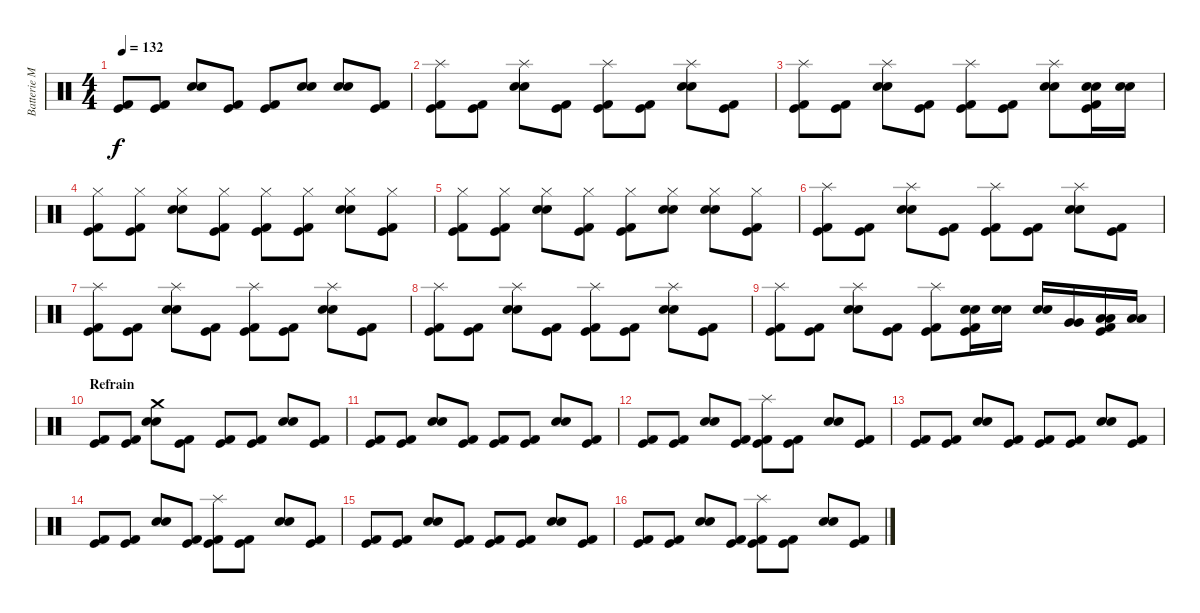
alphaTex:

\track ("Batterie Mat" "Batterie M") {instrument percussion}
\staff {score}
\articulation defaults
\ts (4 4)
\tempo 132
\clef neutral
\ks c
("Kick (hit) 2" "Kick (hit)").8{dy f} ("Kick (hit) 2" "Kick (hit)").8 ("Electric Snare (hit)" "Electric Snare (hit)").8 ("Kick (hit) 2" "Kick (hit)").8 ("Kick (hit) 2" "Kick (hit)").8 ("Electric Snare (hit)" "Electric Snare (hit)").8 ("Electric Snare (hit)" "Electric Snare (hit)").8 ("Kick (hit) 2" "Kick (hit)").8 |
("Splash (hit)" "Kick (hit) 2" "Kick (hit)").8 ("Kick (hit) 2" "Kick (hit)").8 ("Splash (hit)" "Electric Snare (hit)" "Electric Snare (hit)").8 ("Kick (hit) 2" "Kick (hit)").8 ("Splash (hit)" "Kick (hit) 2" "Kick (hit)").8 ("Kick (hit) 2" "Kick (hit)").8 ("Splash (hit)" "Electric Snare (hit)" "Electric Snare (hit)").8 ("Kick (hit) 2" "Kick (hit)").8 |
("Splash (hit)" "Kick (hit) 2" "Kick (hit)").8 ("Kick (hit) 2" "Kick (hit)").8 ("Splash (hit)" "Electric Snare (hit)" "Electric Snare (hit)").8 ("Kick (hit) 2" "Kick (hit)").8 ("Splash (hit)" "Kick (hit) 2" "Kick (hit)").8 ("Kick (hit) 2" "Kick (hit)").8 ("Splash (hit)" "Electric Snare (hit)" "Electric Snare (hit)").8 ("Electric Snare (hit)" "Electric Snare (hit)" "Kick (hit) 2" "Kick (hit)").16 ("Electric Snare (hit)" "Electric Snare (hit)").16 |
("Hi-Hat (closed)" "Kick (hit) 2" "Kick (hit)").8 ("Hi-Hat (closed)" "Kick (hit) 2" "Kick (hit)").8 ("Hi-Hat (closed)" "Electric Snare (hit)" "Electric Snare (hit)").8 ("Hi-Hat (closed)" "Kick (hit) 2" "Kick (hit)").8 ("Hi-Hat (closed)" "Kick (hit) 2" "Kick (hit)").8 ("Hi-Hat (closed)" "Kick (hit) 2" "Kick (hit)").8 ("Hi-Hat (closed)" "Electric Snare (hit)" "Electric Snare (hit)").8 ("Hi-Hat (closed)" "Kick (hit) 2" "Kick (hit)").8 |
("Hi-Hat (closed)" "Kick (hit) 2" "Kick (hit)").8 ("Hi-Hat (closed)" "Kick (hit) 2" "Kick (hit)").8 ("Hi-Hat (closed)" "Electric Snare (hit)" "Electric Snare (hit)").8 ("Hi-Hat (closed)" "Kick (hit) 2" "Kick (hit)").8 ("Hi-Hat (closed)" "Kick (hit) 2" "Kick (hit)").8 ("Hi-Hat (closed)" "Electric Snare (hit)" "Electric Snare (hit)").8 ("Hi-Hat (closed)" "Electric Snare (hit)" "Electric Snare (hit)").8 ("Hi-Hat (closed)" "Kick (hit) 2" "Kick (hit)").8 |
("Splash (hit)" "Kick (hit) 2" "Kick (hit)").8 ("Kick (hit) 2" "Kick (hit)").8 ("Splash (hit)" "Electric Snare (hit)" "Electric Snare (hit)").8 ("Kick (hit) 2" "Kick (hit)").8 ("Splash (hit)" "Kick (hit) 2" "Kick (hit)").8 ("Kick (hit) 2" "Kick (hit)").8 ("Splash (hit)" "Electric Snare (hit)" "Electric Snare (hit)").8 ("Kick (hit) 2" "Kick (hit)").8 |
("Splash (hit)" "Kick (hit) 2" "Kick (hit)").8 ("Kick (hit) 2" "Kick (hit)").8 ("Splash (hit)" "Electric Snare (hit)" "Electric Snare (hit)").8 ("Kick (hit) 2" "Kick (hit)").8 ("Splash (hit)" "Kick (hit) 2" "Kick (hit)").8 ("Kick (hit) 2" "Kick (hit)").8 ("Splash (hit)" "Electric Snare (hit)" "Electric Snare (hit)").8 ("Kick (hit) 2" "Kick (hit)").8 |
("Splash (hit)" "Kick (hit) 2" "Kick (hit)").8 ("Kick (hit) 2" "Kick (hit)").8 ("Splash (hit)" "Electric Snare (hit)" "Electric Snare (hit)").8 ("Kick (hit) 2" "Kick (hit)").8 ("Splash (hit)" "Kick (hit) 2" "Kick (hit)").8 ("Kick (hit) 2" "Kick (hit)").8 ("Splash (hit)" "Electric Snare (hit)" "Electric Snare (hit)").8 ("Kick (hit) 2" "Kick (hit)").8 |
("Splash (hit)" "Kick (hit) 2" "Kick (hit)").8 ("Kick (hit) 2" "Kick (hit)").8 ("Splash (hit)" "Electric Snare (hit)" "Electric Snare (hit)").8 ("Kick (hit) 2" "Kick (hit)").8 ("Splash (hit)" "Kick (hit) 2" "Kick (hit)").8 ("Electric Snare (hit)" "Electric Snare (hit)" "Kick (hit) 2" "Kick (hit)").16 ("Electric Snare (hit)" "Electric Snare (hit)").16 ("Electric Snare (hit)" "Electric Snare (hit)").16 ("Very Low Tom (hit)" "Very Low Tom (hit)").16 ("Low Floor Tom (hit)" "Low Floor Tom (hit)" "Kick (hit) 2" "Kick (hit)").16 ("Low Floor Tom (hit)" "Low Floor Tom (hit)").16 |
\section ("" "Refrain")
("Kick (hit) 2" "Kick (hit)").8 ("Kick (hit) 2" "Kick (hit)").8 ("Crash medium (hit)" "Electric Snare (hit)" "Electric Snare (hit)").8 ("Kick (hit) 2" "Kick (hit)").8 ("Kick (hit) 2" "Kick (hit)").8 ("Kick (hit) 2" "Kick (hit)").8 ("Electric Snare (hit)" "Electric Snare (hit)").8 ("Kick (hit) 2" "Kick (hit)").8 |
("Kick (hit) 2" "Kick (hit)").8 ("Kick (hit) 2" "Kick (hit)").8 ("Electric Snare (hit)" "Electric Snare (hit)").8 ("Kick (hit) 2" "Kick (hit)").8 ("Kick (hit) 2" "Kick (hit)").8 ("Kick (hit) 2" "Kick (hit)").8 ("Electric Snare (hit)" "Electric Snare (hit)").8 ("Kick (hit) 2" "Kick (hit)").8 |
("Kick (hit) 2" "Kick (hit)").8 ("Kick (hit) 2" "Kick (hit)").8 ("Electric Snare (hit)" "Electric Snare (hit)").8 ("Kick (hit) 2" "Kick (hit)").8 ("Splash (hit)" "Kick (hit) 2" "Kick (hit)").8 ("Kick (hit) 2" "Kick (hit)").8 ("Electric Snare (hit)" "Electric Snare (hit)").8 ("Kick (hit) 2" "Kick (hit)").8 |
("Kick (hit) 2" "Kick (hit)").8 ("Kick (hit) 2" "Kick (hit)").8 ("Electric Snare (hit)" "Electric Snare (hit)").8 ("Kick (hit) 2" "Kick (hit)").8 ("Kick (hit) 2" "Kick (hit)").8 ("Kick (hit) 2" "Kick (hit)").8 ("Electric Snare (hit)" "Electric Snare (hit)").8 ("Kick (hit) 2" "Kick (hit)").8 |
("Kick (hit) 2" "Kick (hit)").8 ("Kick (hit) 2" "Kick (hit)").8 ("Electric Snare (hit)" "Electric Snare (hit)").8 ("Kick (hit) 2" "Kick (hit)").8 ("Splash (hit)" "Kick (hit) 2" "Kick (hit)").8 ("Kick (hit) 2" "Kick (hit)").8 ("Electric Snare (hit)" "Electric Snare (hit)").8 ("Kick (hit) 2" "Kick (hit)").8 |
("Kick (hit) 2" "Kick (hit)").8 ("Kick (hit) 2" "Kick (hit)").8 ("Electric Snare (hit)" "Electric Snare (hit)").8 ("Kick (hit) 2" "Kick (hit)").8 ("Kick (hit) 2" "Kick (hit)").8 ("Kick (hit) 2" "Kick (hit)").8 ("Electric Snare (hit)" "Electric Snare (hit)").8 ("Kick (hit) 2" "Kick (hit)").8 |
("Kick (hit) 2" "Kick (hit)").8 ("Kick (hit) 2" "Kick (hit)").8 ("Electric Snare (hit)" "Electric Snare (hit)").8 ("Kick (hit) 2" "Kick (hit)").8 ("Splash (hit)" "Kick (hit) 2" "Kick (hit)").8 ("Kick (hit) 2" "Kick (hit)").8 ("Electric Snare (hit)" "Electric Snare (hit)").8 ("Kick (hit) 2" "Kick (hit)").8
